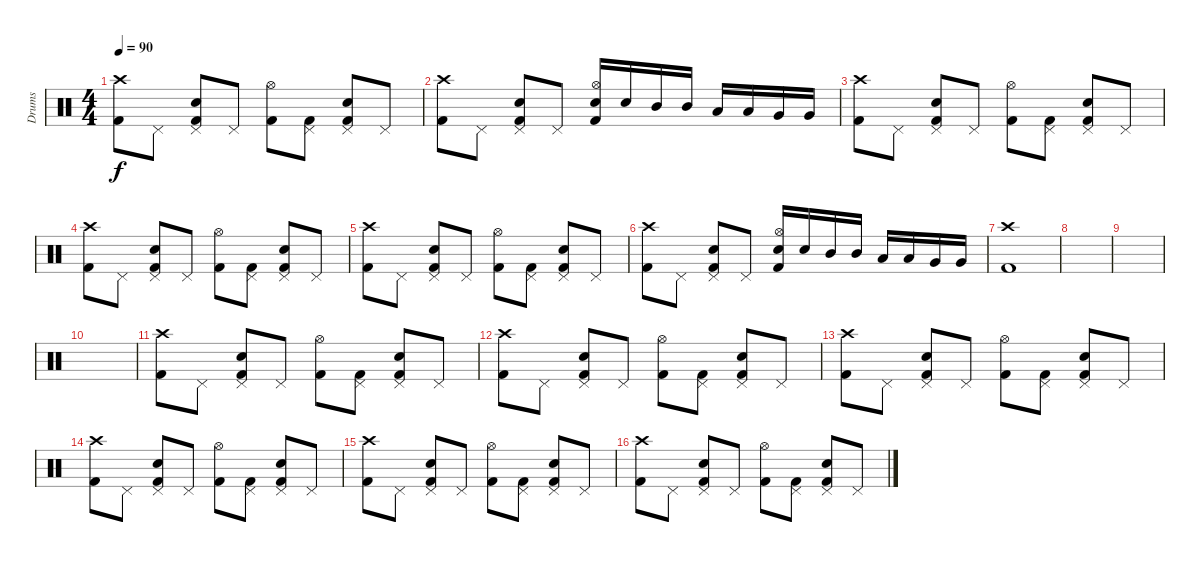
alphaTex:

\track ("Drums" "Drums") {instrument percussion}
\staff {score}
\articulation defaults
\ts (4 4)
\tempo 90
\clef neutral
\ks c
("Crash high (hit)" "Kick (hit) 2").8{dy f} "Pedal Hi-Hat (hit)".8 ("Pedal Hi-Hat (hit)" "Electric Snare (hit)" "Kick (hit) 2").8 "Pedal Hi-Hat (hit)".8 ("Hi-Hat (open)" "Kick (hit) 2").8 ("Pedal Hi-Hat (hit)" "Kick (hit) 2").8 ("Pedal Hi-Hat (hit)" "Electric Snare (hit)" "Kick (hit) 2").8 "Pedal Hi-Hat (hit)".8 |
("Crash high (hit)" "Kick (hit) 2").8 "Pedal Hi-Hat (hit)".8 ("Pedal Hi-Hat (hit)" "Electric Snare (hit)" "Kick (hit) 2").8 "Pedal Hi-Hat (hit)".8 ("Hi-Hat (open)" "Snare (hit) 2" "Kick (hit) 2").16 "Snare (hit) 2".16 "Mid Tom (hit)".16 "Mid Tom (hit)".16 "Low Tom (hit)".16 "Low Tom (hit)".16 "Very Low Tom (hit)".16 "Very Low Tom (hit)".16 |
("Crash high (hit)" "Kick (hit) 2").8 "Pedal Hi-Hat (hit)".8 ("Pedal Hi-Hat (hit)" "Electric Snare (hit)" "Kick (hit) 2").8 "Pedal Hi-Hat (hit)".8 ("Hi-Hat (open)" "Kick (hit) 2").8 ("Pedal Hi-Hat (hit)" "Kick (hit) 2").8 ("Pedal Hi-Hat (hit)" "Electric Snare (hit)" "Kick (hit) 2").8 "Pedal Hi-Hat (hit)".8 |
("Crash high (hit)" "Kick (hit) 2").8 "Pedal Hi-Hat (hit)".8 ("Pedal Hi-Hat (hit)" "Electric Snare (hit)" "Kick (hit) 2").8 "Pedal Hi-Hat (hit)".8 ("Hi-Hat (open)" "Kick (hit) 2").8 ("Pedal Hi-Hat (hit)" "Kick (hit) 2").8 ("Pedal Hi-Hat (hit)" "Electric Snare (hit)" "Kick (hit) 2").8 "Pedal Hi-Hat (hit)".8 |
("Crash high (hit)" "Kick (hit) 2").8 "Pedal Hi-Hat (hit)".8 ("Pedal Hi-Hat (hit)" "Electric Snare (hit)" "Kick (hit) 2").8 "Pedal Hi-Hat (hit)".8 ("Hi-Hat (open)" "Kick (hit) 2").8 ("Pedal Hi-Hat (hit)" "Kick (hit) 2").8 ("Pedal Hi-Hat (hit)" "Electric Snare (hit)" "Kick (hit) 2").8 "Pedal Hi-Hat (hit)".8 |
("Crash high (hit)" "Kick (hit) 2").8 "Pedal Hi-Hat (hit)".8 ("Pedal Hi-Hat (hit)" "Electric Snare (hit)" "Kick (hit) 2").8 "Pedal Hi-Hat (hit)".8 ("Hi-Hat (open)" "Snare (hit) 2" "Kick (hit) 2").16 "Snare (hit) 2".16 "Mid Tom (hit)".16 "Mid Tom (hit)".16 "Low Tom (hit)".16 "Low Tom (hit)".16 "Very Low Tom (hit)".16 "Very Low Tom (hit)".16 |
("Crash high (hit)" "Kick (hit) 2").1 |
|
|
|
("Crash high (hit)" "Kick (hit) 2").8 "Pedal Hi-Hat (hit)".8 ("Pedal Hi-Hat (hit)" "Electric Snare (hit)" "Kick (hit) 2").8 "Pedal Hi-Hat (hit)".8 ("Hi-Hat (open)" "Kick (hit) 2").8 ("Pedal Hi-Hat (hit)" "Kick (hit) 2").8 ("Pedal Hi-Hat (hit)" "Electric Snare (hit)" "Kick (hit) 2").8 "Pedal Hi-Hat (hit)".8 |
("Crash high (hit)" "Kick (hit) 2").8 "Pedal Hi-Hat (hit)".8 ("Pedal Hi-Hat (hit)" "Electric Snare (hit)" "Kick (hit) 2").8 "Pedal Hi-Hat (hit)".8 ("Hi-Hat (open)" "Kick (hit) 2").8 ("Pedal Hi-Hat (hit)" "Kick (hit) 2").8 ("Pedal Hi-Hat (hit)" "Electric Snare (hit)" "Kick (hit) 2").8 "Pedal Hi-Hat (hit)".8 |
("Crash high (hit)" "Kick (hit) 2").8 "Pedal Hi-Hat (hit)".8 ("Pedal Hi-Hat (hit)" "Electric Snare (hit)" "Kick (hit) 2").8 "Pedal Hi-Hat (hit)".8 ("Hi-Hat (open)" "Kick (hit) 2").8 ("Pedal Hi-Hat (hit)" "Kick (hit) 2").8 ("Pedal Hi-Hat (hit)" "Electric Snare (hit)" "Kick (hit) 2").8 "Pedal Hi-Hat (hit)".8 |
("Crash high (hit)" "Kick (hit) 2").8 "Pedal Hi-Hat (hit)".8 ("Pedal Hi-Hat (hit)" "Electric Snare (hit)" "Kick (hit) 2").8 "Pedal Hi-Hat (hit)".8 ("Hi-Hat (open)" "Kick (hit) 2").8 ("Pedal Hi-Hat (hit)" "Kick (hit) 2").8 ("Pedal Hi-Hat (hit)" "Electric Snare (hit)" "Kick (hit) 2").8 "Pedal Hi-Hat (hit)".8 |
("Crash high (hit)" "Kick (hit) 2").8 "Pedal Hi-Hat (hit)".8 ("Pedal Hi-Hat (hit)" "Electric Snare (hit)" "Kick (hit) 2").8 "Pedal Hi-Hat (hit)".8 ("Hi-Hat (open)" "Kick (hit) 2").8 ("Pedal Hi-Hat (hit)" "Kick (hit) 2").8 ("Pedal Hi-Hat (hit)" "Electric Snare (hit)" "Kick (hit) 2").8 "Pedal Hi-Hat (hit)".8 |
("Crash high (hit)" "Kick (hit) 2").8 "Pedal Hi-Hat (hit)".8 ("Pedal Hi-Hat (hit)" "Electric Snare (hit)" "Kick (hit) 2").8 "Pedal Hi-Hat (hit)".8 ("Hi-Hat (open)" "Kick (hit) 2").8 ("Pedal Hi-Hat (hit)" "Kick (hit) 2").8 ("Pedal Hi-Hat (hit)" "Electric Snare (hit)" "Kick (hit) 2").8 "Pedal Hi-Hat (hit)".8
